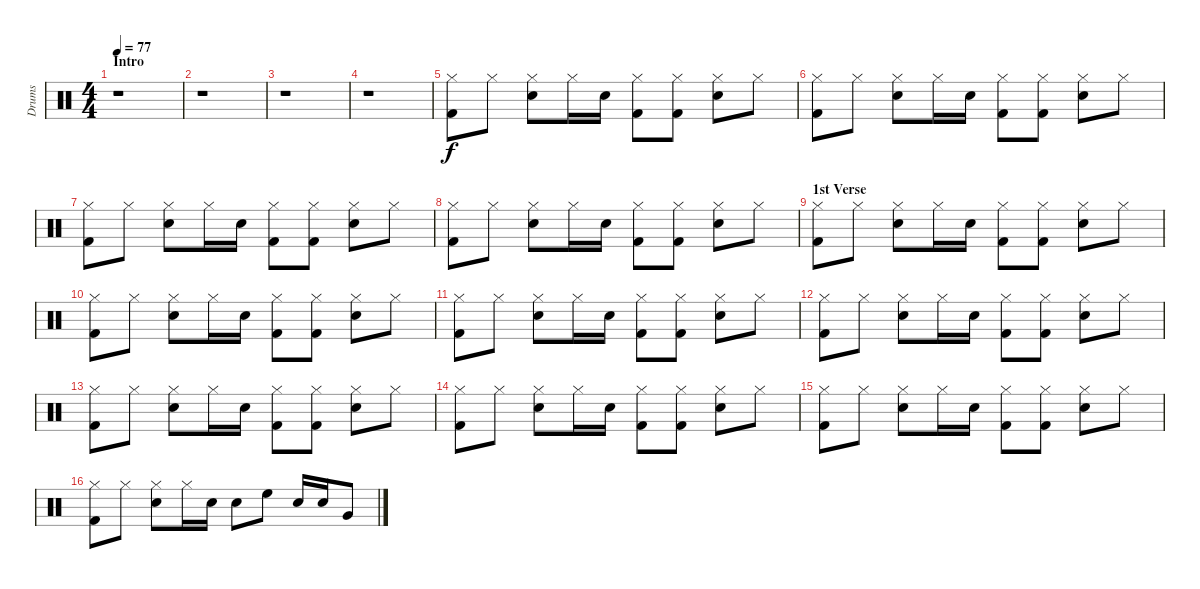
\track ("Drums" "Drums") {instrument percussion}
\staff {score}
\articulation defaults
\ts (4 4)
\section ("" "Intro")
\tempo 77
\clef neutral
\ks c
r.1{dy f} |
r.1 |
r.1 |
r.1 |
("Hi-Hat (closed)" "Kick (hit) 2").8 "Hi-Hat (closed)".8 ("Hi-Hat (closed)" "Snare (hit) 2").8 "Hi-Hat (closed)".16 "Snare (hit) 2".16 ("Hi-Hat (closed)" "Kick (hit) 2").8 ("Hi-Hat (closed)" "Kick (hit) 2").8 ("Hi-Hat (closed)" "Snare (hit) 2").8 "Hi-Hat (closed)".8 |
("Hi-Hat (closed)" "Kick (hit) 2").8 "Hi-Hat (closed)".8 ("Hi-Hat (closed)" "Snare (hit) 2").8 "Hi-Hat (closed)".16 "Snare (hit) 2".16 ("Hi-Hat (closed)" "Kick (hit) 2").8 ("Hi-Hat (closed)" "Kick (hit) 2").8 ("Hi-Hat (closed)" "Snare (hit) 2").8 "Hi-Hat (closed)".8 |
("Hi-Hat (closed)" "Kick (hit) 2").8 "Hi-Hat (closed)".8 ("Hi-Hat (closed)" "Snare (hit) 2").8 "Hi-Hat (closed)".16 "Snare (hit) 2".16 ("Hi-Hat (closed)" "Kick (hit) 2").8 ("Hi-Hat (closed)" "Kick (hit) 2").8 ("Hi-Hat (closed)" "Snare (hit) 2").8 "Hi-Hat (closed)".8 |
("Hi-Hat (closed)" "Kick (hit) 2").8 "Hi-Hat (closed)".8 ("Hi-Hat (closed)" "Snare (hit) 2").8 "Hi-Hat (closed)".16 "Snare (hit) 2".16 ("Hi-Hat (closed)" "Kick (hit) 2").8 ("Hi-Hat (closed)" "Kick (hit) 2").8 ("Hi-Hat (closed)" "Snare (hit) 2").8 "Hi-Hat (closed)".8 |
\section ("" "1st Verse ")
("Hi-Hat (closed)" "Kick (hit) 2").8 "Hi-Hat (closed)".8 ("Hi-Hat (closed)" "Snare (hit) 2").8 "Hi-Hat (closed)".16 "Snare (hit) 2".16 ("Hi-Hat (closed)" "Kick (hit) 2").8 ("Hi-Hat (closed)" "Kick (hit) 2").8 ("Hi-Hat (closed)" "Snare (hit) 2").8 "Hi-Hat (closed)".8 |
("Hi-Hat (closed)" "Kick (hit) 2").8 "Hi-Hat (closed)".8 ("Hi-Hat (closed)" "Snare (hit) 2").8 "Hi-Hat (closed)".16 "Snare (hit) 2".16 ("Hi-Hat (closed)" "Kick (hit) 2").8 ("Hi-Hat (closed)" "Kick (hit) 2").8 ("Hi-Hat (closed)" "Snare (hit) 2").8 "Hi-Hat (closed)".8 |
("Hi-Hat (closed)" "Kick (hit) 2").8 "Hi-Hat (closed)".8 ("Hi-Hat (closed)" "Snare (hit) 2").8 "Hi-Hat (closed)".16 "Snare (hit) 2".16 ("Hi-Hat (closed)" "Kick (hit) 2").8 ("Hi-Hat (closed)" "Kick (hit) 2").8 ("Hi-Hat (closed)" "Snare (hit) 2").8 "Hi-Hat (closed)".8 |
("Hi-Hat (closed)" "Kick (hit) 2").8 "Hi-Hat (closed)".8 ("Hi-Hat (closed)" "Snare (hit) 2").8 "Hi-Hat (closed)".16 "Snare (hit) 2".16 ("Hi-Hat (closed)" "Kick (hit) 2").8 ("Hi-Hat (closed)" "Kick (hit) 2").8 ("Hi-Hat (closed)" "Snare (hit) 2").8 "Hi-Hat (closed)".8 |
("Hi-Hat (closed)" "Kick (hit) 2").8 "Hi-Hat (closed)".8 ("Hi-Hat (closed)" "Snare (hit) 2").8 "Hi-Hat (closed)".16 "Snare (hit) 2".16 ("Hi-Hat (closed)" "Kick (hit) 2").8 ("Hi-Hat (closed)" "Kick (hit) 2").8 ("Hi-Hat (closed)" "Snare (hit) 2").8 "Hi-Hat (closed)".8 |
("Hi-Hat (closed)" "Kick (hit) 2").8 "Hi-Hat (closed)".8 ("Hi-Hat (closed)" "Snare (hit) 2").8 "Hi-Hat (closed)".16 "Snare (hit) 2".16 ("Hi-Hat (closed)" "Kick (hit) 2").8 ("Hi-Hat (closed)" "Kick (hit) 2").8 ("Hi-Hat (closed)" "Snare (hit) 2").8 "Hi-Hat (closed)".8 |
("Hi-Hat (closed)" "Kick (hit) 2").8 "Hi-Hat (closed)".8 ("Hi-Hat (closed)" "Snare (hit) 2").8 "Hi-Hat (closed)".16 "Snare (hit) 2".16 ("Hi-Hat (closed)" "Kick (hit) 2").8 ("Hi-Hat (closed)" "Kick (hit) 2").8 ("Hi-Hat (closed)" "Snare (hit) 2").8 "Hi-Hat (closed)".8 |
("Hi-Hat (closed)" "Kick (hit) 2").8 "Hi-Hat (closed)".8 ("Hi-Hat (closed)" "Snare (hit) 2").8 "Hi-Hat (closed)".16 "Snare (hit) 2".16 "Snare (hit) 2".8 "High Floor Tom (hit)".8 "Snare (hit) 2".16 "Snare (hit) 2".16 "Very Low Tom (hit)".8
